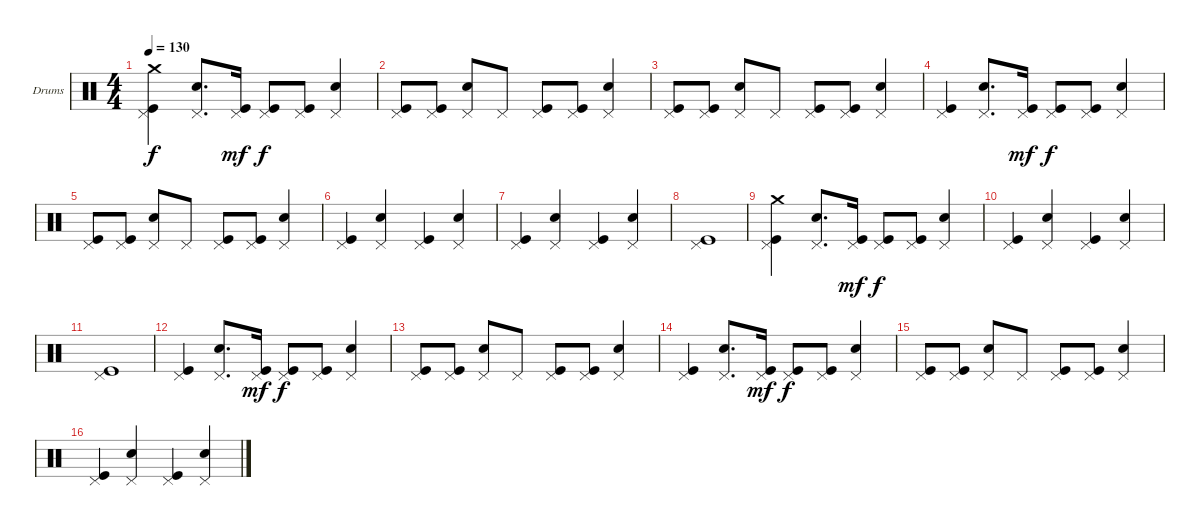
\defaultSystemsLayout 4
\bracketExtendMode groupsimilarinstruments
\firstSystemTrackNameOrientation horizontal
\otherSystemsTrackNameOrientation horizontal
\track ("Е. Кулаков" "Drums") {instrument percussion}
\staff {score}
\articulation defaults
\ts (4 4)
\tempo 130
\clef neutral
\ks c
("Kick (hit)" "Pedal Hi-Hat (hit)" "Crash medium (hit)").4{dy f} ("Snare (hit) 2" "Pedal Hi-Hat (hit)").8{d} ("Kick (hit)" "Pedal Hi-Hat (hit)").16{dy mf} ("Kick (hit)" "Pedal Hi-Hat (hit)").8{dy f} ("Kick (hit)" "Pedal Hi-Hat (hit)").8 ("Snare (hit) 2" "Pedal Hi-Hat (hit)").4 |
("Kick (hit)" "Pedal Hi-Hat (hit)").8 ("Kick (hit)" "Pedal Hi-Hat (hit)").8 ("Snare (hit) 2" "Pedal Hi-Hat (hit)").8 "Pedal Hi-Hat (hit)".8 ("Kick (hit)" "Pedal Hi-Hat (hit)").8 ("Kick (hit)" "Pedal Hi-Hat (hit)").8 ("Snare (hit) 2" "Pedal Hi-Hat (hit)").4 |
("Kick (hit)" "Pedal Hi-Hat (hit)").8 ("Kick (hit)" "Pedal Hi-Hat (hit)").8 ("Snare (hit) 2" "Pedal Hi-Hat (hit)").8 "Pedal Hi-Hat (hit)".8 ("Kick (hit)" "Pedal Hi-Hat (hit)").8 ("Kick (hit)" "Pedal Hi-Hat (hit)").8 ("Snare (hit) 2" "Pedal Hi-Hat (hit)").4 |
("Kick (hit)" "Pedal Hi-Hat (hit)").4 ("Snare (hit) 2" "Pedal Hi-Hat (hit)").8{d} ("Kick (hit)" "Pedal Hi-Hat (hit)").16{dy mf} ("Kick (hit)" "Pedal Hi-Hat (hit)").8{dy f} ("Kick (hit)" "Pedal Hi-Hat (hit)").8 ("Snare (hit) 2" "Pedal Hi-Hat (hit)").4 |
("Kick (hit)" "Pedal Hi-Hat (hit)").8 ("Kick (hit)" "Pedal Hi-Hat (hit)").8 ("Snare (hit) 2" "Pedal Hi-Hat (hit)").8 "Pedal Hi-Hat (hit)".8 ("Kick (hit)" "Pedal Hi-Hat (hit)").8 ("Kick (hit)" "Pedal Hi-Hat (hit)").8 ("Snare (hit) 2" "Pedal Hi-Hat (hit)").4 |
("Kick (hit)" "Pedal Hi-Hat (hit)").4 ("Snare (hit) 2" "Pedal Hi-Hat (hit)").4 ("Kick (hit)" "Pedal Hi-Hat (hit)").4 ("Snare (hit) 2" "Pedal Hi-Hat (hit)").4 |
("Kick (hit)" "Pedal Hi-Hat (hit)").4 ("Snare (hit) 2" "Pedal Hi-Hat (hit)").4 ("Kick (hit)" "Pedal Hi-Hat (hit)").4 ("Snare (hit) 2" "Pedal Hi-Hat (hit)").4 |
("Kick (hit)" "Pedal Hi-Hat (hit)").1 |
("Kick (hit)" "Pedal Hi-Hat (hit)" "Crash medium (hit)").4 ("Snare (hit) 2" "Pedal Hi-Hat (hit)").8{d} ("Kick (hit)" "Pedal Hi-Hat (hit)").16{dy mf} ("Kick (hit)" "Pedal Hi-Hat (hit)").8{dy f} ("Kick (hit)" "Pedal Hi-Hat (hit)").8 ("Snare (hit) 2" "Pedal Hi-Hat (hit)").4 |
("Kick (hit)" "Pedal Hi-Hat (hit)").4 ("Snare (hit) 2" "Pedal Hi-Hat (hit)").4 ("Kick (hit)" "Pedal Hi-Hat (hit)").4 ("Snare (hit) 2" "Pedal Hi-Hat (hit)").4 |
("Kick (hit)" "Pedal Hi-Hat (hit)").1 |
("Kick (hit)" "Pedal Hi-Hat (hit)").4 ("Snare (hit) 2" "Pedal Hi-Hat (hit)").8{d} ("Kick (hit)" "Pedal Hi-Hat (hit)").16{dy mf} ("Kick (hit)" "Pedal Hi-Hat (hit)").8{dy f} ("Kick (hit)" "Pedal Hi-Hat (hit)").8 ("Snare (hit) 2" "Pedal Hi-Hat (hit)").4 |
("Kick (hit)" "Pedal Hi-Hat (hit)").8 ("Kick (hit)" "Pedal Hi-Hat (hit)").8 ("Snare (hit) 2" "Pedal Hi-Hat (hit)").8 "Pedal Hi-Hat (hit)".8 ("Kick (hit)" "Pedal Hi-Hat (hit)").8 ("Kick (hit)" "Pedal Hi-Hat (hit)").8 ("Snare (hit) 2" "Pedal Hi-Hat (hit)").4 |
("Kick (hit)" "Pedal Hi-Hat (hit)").4 ("Snare (hit) 2" "Pedal Hi-Hat (hit)").8{d} ("Kick (hit)" "Pedal Hi-Hat (hit)").16{dy mf} ("Kick (hit)" "Pedal Hi-Hat (hit)").8{dy f} ("Kick (hit)" "Pedal Hi-Hat (hit)").8 ("Snare (hit) 2" "Pedal Hi-Hat (hit)").4 |
("Kick (hit)" "Pedal Hi-Hat (hit)").8 ("Kick (hit)" "Pedal Hi-Hat (hit)").8 ("Snare (hit) 2" "Pedal Hi-Hat (hit)").8 "Pedal Hi-Hat (hit)".8 ("Kick (hit)" "Pedal Hi-Hat (hit)").8 ("Kick (hit)" "Pedal Hi-Hat (hit)").8 ("Snare (hit) 2" "Pedal Hi-Hat (hit)").4 |
("Kick (hit)" "Pedal Hi-Hat (hit)").4 ("Snare (hit) 2" "Pedal Hi-Hat (hit)").4 ("Kick (hit)" "Pedal Hi-Hat (hit)").4 ("Snare (hit) 2" "Pedal Hi-Hat (hit)").4
